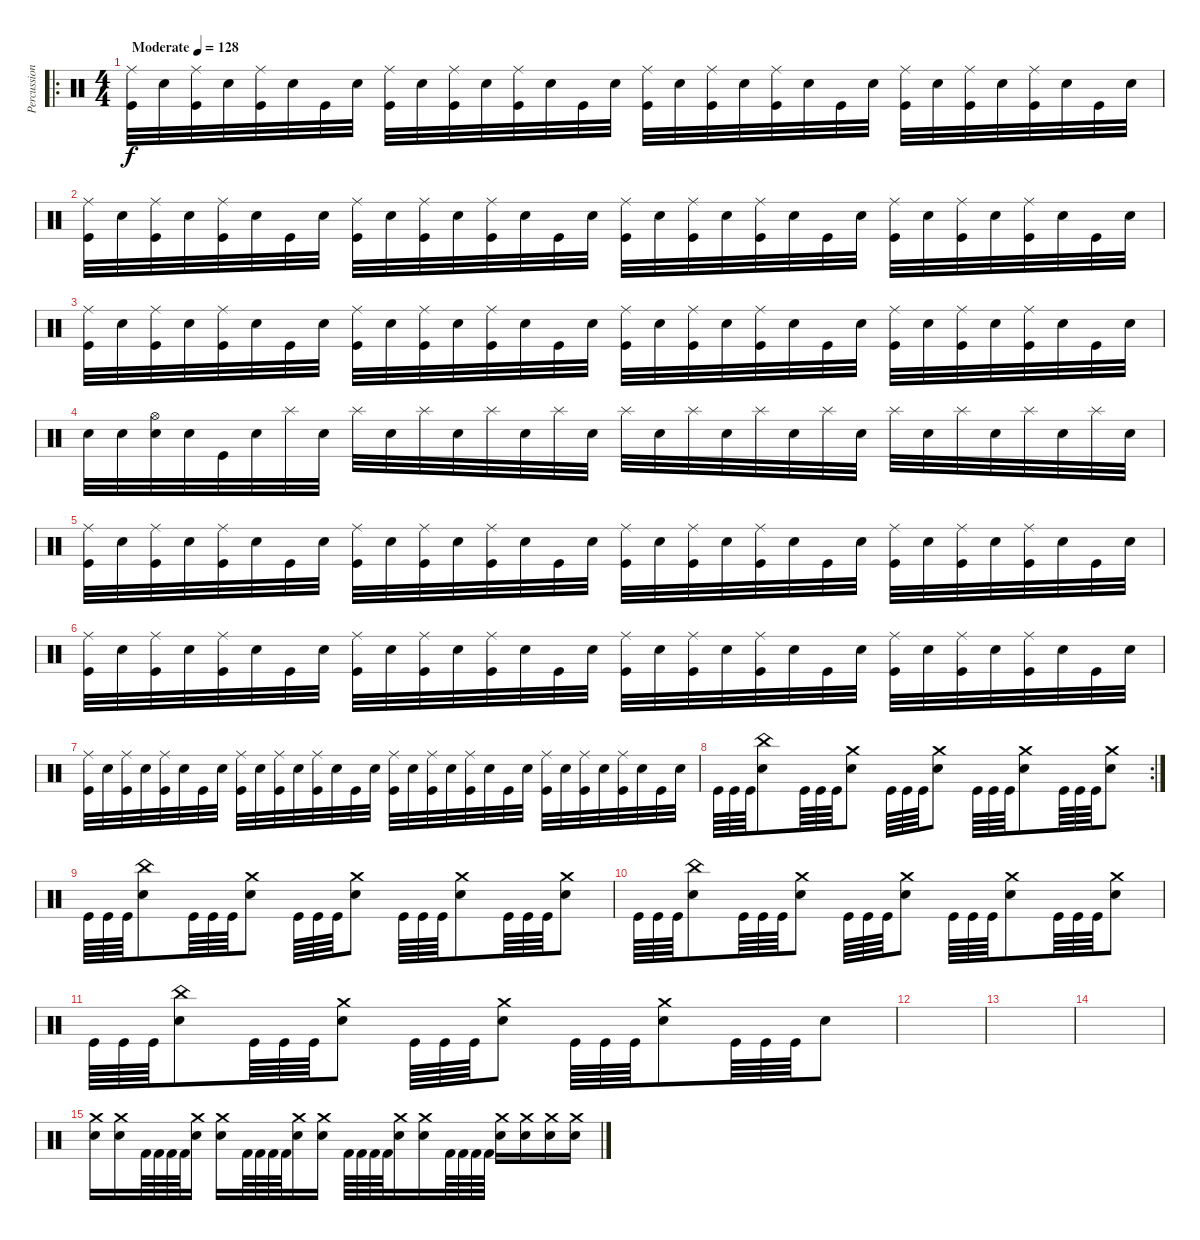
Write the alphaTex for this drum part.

\track ("Percussioni" "Percussion") {instrument percussion}
\staff {score}
\articulation defaults
\ro
\ts (4 4)
\tempo (128 "Moderate")
\clef neutral
\ks c
("Ride (middle)" "Kick (hit)").32{dy f} "Electric Snare (hit)".32 ("Ride (middle)" "Kick (hit)").32 "Electric Snare (hit)".32 ("Ride (middle)" "Kick (hit)").32 "Electric Snare (hit)".32 "Kick (hit)".32 "Electric Snare (hit)".32 ("Ride (middle)" "Kick (hit)").32 "Electric Snare (hit)".32 ("Ride (middle)" "Kick (hit)").32 "Electric Snare (hit)".32 ("Ride (middle)" "Kick (hit)").32 "Electric Snare (hit)".32 "Kick (hit)".32 "Electric Snare (hit)".32 ("Ride (middle)" "Kick (hit)").32 "Electric Snare (hit)".32 ("Ride (middle)" "Kick (hit)").32 "Electric Snare (hit)".32 ("Ride (middle)" "Kick (hit)").32 "Electric Snare (hit)".32 "Kick (hit)".32 "Electric Snare (hit)".32 ("Ride (middle)" "Kick (hit)").32 "Electric Snare (hit)".32 ("Ride (middle)" "Kick (hit)").32 "Electric Snare (hit)".32 ("Ride (middle)" "Kick (hit)").32 "Electric Snare (hit)".32 "Kick (hit)".32 "Electric Snare (hit)".32 |
("Ride (middle)" "Kick (hit)").32 "Electric Snare (hit)".32 ("Ride (middle)" "Kick (hit)").32 "Electric Snare (hit)".32 ("Ride (middle)" "Kick (hit)").32 "Electric Snare (hit)".32 "Kick (hit)".32 "Electric Snare (hit)".32 ("Ride (middle)" "Kick (hit)").32 "Electric Snare (hit)".32 ("Ride (middle)" "Kick (hit)").32 "Electric Snare (hit)".32 ("Ride (middle)" "Kick (hit)").32 "Electric Snare (hit)".32 "Kick (hit)".32 "Electric Snare (hit)".32 ("Ride (middle)" "Kick (hit)").32 "Electric Snare (hit)".32 ("Ride (middle)" "Kick (hit)").32 "Electric Snare (hit)".32 ("Ride (middle)" "Kick (hit)").32 "Electric Snare (hit)".32 "Kick (hit)".32 "Electric Snare (hit)".32 ("Ride (middle)" "Kick (hit)").32 "Electric Snare (hit)".32 ("Ride (middle)" "Kick (hit)").32 "Electric Snare (hit)".32 ("Ride (middle)" "Kick (hit)").32 "Electric Snare (hit)".32 "Kick (hit)".32 "Electric Snare (hit)".32 |
("Ride (middle)" "Kick (hit)").32 "Electric Snare (hit)".32 ("Ride (middle)" "Kick (hit)").32 "Electric Snare (hit)".32 ("Ride (middle)" "Kick (hit)").32 "Electric Snare (hit)".32 "Kick (hit)".32 "Electric Snare (hit)".32 ("Ride (middle)" "Kick (hit)").32 "Electric Snare (hit)".32 ("Ride (middle)" "Kick (hit)").32 "Electric Snare (hit)".32 ("Ride (middle)" "Kick (hit)").32 "Electric Snare (hit)".32 "Kick (hit)".32 "Electric Snare (hit)".32 ("Ride (middle)" "Kick (hit)").32 "Electric Snare (hit)".32 ("Ride (middle)" "Kick (hit)").32 "Electric Snare (hit)".32 ("Ride (middle)" "Kick (hit)").32 "Electric Snare (hit)".32 "Kick (hit)".32 "Electric Snare (hit)".32 ("Ride (middle)" "Kick (hit)").32 "Electric Snare (hit)".32 ("Ride (middle)" "Kick (hit)").32 "Electric Snare (hit)".32 ("Ride (middle)" "Kick (hit)").32 "Electric Snare (hit)".32 "Kick (hit)".32 "Electric Snare (hit)".32 |
"Electric Snare (hit)".32 "Electric Snare (hit)".32 ("Hi-Hat (open)" "Electric Snare (hit)").32 "Electric Snare (hit)".32 "Kick (hit)".32 "Electric Snare (hit)".32 "Splash (hit)".32 "Electric Snare (hit)".32 "Splash (hit)".32 "Electric Snare (hit)".32 "Splash (hit)".32 "Electric Snare (hit)".32 "Splash (hit)".32 "Electric Snare (hit)".32 "Splash (hit)".32 "Electric Snare (hit)".32 "Splash (hit)".32 "Electric Snare (hit)".32 "Splash (hit)".32 "Electric Snare (hit)".32 "Splash (hit)".32 "Electric Snare (hit)".32 "Splash (hit)".32 "Electric Snare (hit)".32 "Splash (hit)".32 "Electric Snare (hit)".32 "Splash (hit)".32 "Electric Snare (hit)".32 "Splash (hit)".32 "Electric Snare (hit)".32 "Splash (hit)".32 "Electric Snare (hit)".32 |
("Ride (middle)" "Kick (hit)").32 "Electric Snare (hit)".32 ("Ride (middle)" "Kick (hit)").32 "Electric Snare (hit)".32 ("Ride (middle)" "Kick (hit)").32 "Electric Snare (hit)".32 "Kick (hit)".32 "Electric Snare (hit)".32 ("Ride (middle)" "Kick (hit)").32 "Electric Snare (hit)".32 ("Ride (middle)" "Kick (hit)").32 "Electric Snare (hit)".32 ("Ride (middle)" "Kick (hit)").32 "Electric Snare (hit)".32 "Kick (hit)".32 "Electric Snare (hit)".32 ("Ride (middle)" "Kick (hit)").32 "Electric Snare (hit)".32 ("Ride (middle)" "Kick (hit)").32 "Electric Snare (hit)".32 ("Ride (middle)" "Kick (hit)").32 "Electric Snare (hit)".32 "Kick (hit)".32 "Electric Snare (hit)".32 ("Ride (middle)" "Kick (hit)").32 "Electric Snare (hit)".32 ("Ride (middle)" "Kick (hit)").32 "Electric Snare (hit)".32 ("Ride (middle)" "Kick (hit)").32 "Electric Snare (hit)".32 "Kick (hit)".32 "Electric Snare (hit)".32 |
("Ride (middle)" "Kick (hit)").32 "Electric Snare (hit)".32 ("Ride (middle)" "Kick (hit)").32 "Electric Snare (hit)".32 ("Ride (middle)" "Kick (hit)").32 "Electric Snare (hit)".32 "Kick (hit)".32 "Electric Snare (hit)".32 ("Ride (middle)" "Kick (hit)").32 "Electric Snare (hit)".32 ("Ride (middle)" "Kick (hit)").32 "Electric Snare (hit)".32 ("Ride (middle)" "Kick (hit)").32 "Electric Snare (hit)".32 "Kick (hit)".32 "Electric Snare (hit)".32 ("Ride (middle)" "Kick (hit)").32 "Electric Snare (hit)".32 ("Ride (middle)" "Kick (hit)").32 "Electric Snare (hit)".32 ("Ride (middle)" "Kick (hit)").32 "Electric Snare (hit)".32 "Kick (hit)".32 "Electric Snare (hit)".32 ("Ride (middle)" "Kick (hit)").32 "Electric Snare (hit)".32 ("Ride (middle)" "Kick (hit)").32 "Electric Snare (hit)".32 ("Ride (middle)" "Kick (hit)").32 "Electric Snare (hit)".32 "Kick (hit)".32 "Electric Snare (hit)".32 |
("Ride (middle)" "Kick (hit)").32 "Electric Snare (hit)".32 ("Ride (middle)" "Kick (hit)").32 "Electric Snare (hit)".32 ("Ride (middle)" "Kick (hit)").32 "Electric Snare (hit)".32 "Kick (hit)".32 "Electric Snare (hit)".32 ("Ride (middle)" "Kick (hit)").32 "Electric Snare (hit)".32 ("Ride (middle)" "Kick (hit)").32 "Electric Snare (hit)".32 ("Ride (middle)" "Kick (hit)").32 "Electric Snare (hit)".32 "Kick (hit)".32 "Electric Snare (hit)".32 ("Ride (middle)" "Kick (hit)").32 "Electric Snare (hit)".32 ("Ride (middle)" "Kick (hit)").32 "Electric Snare (hit)".32 ("Ride (middle)" "Kick (hit)").32 "Electric Snare (hit)".32 "Kick (hit)".32 "Electric Snare (hit)".32 ("Ride (middle)" "Kick (hit)").32 "Electric Snare (hit)".32 ("Ride (middle)" "Kick (hit)").32 "Electric Snare (hit)".32 ("Ride (middle)" "Kick (hit)").32 "Electric Snare (hit)".32 "Kick (hit)".32 "Electric Snare (hit)".32 |
\rc 2 "Kick (hit)".64 "Kick (hit)".64 "Kick (hit)".64
("China (hit)" "Electric Snare (hit)").8 "Kick (hit)".64 "Kick (hit)".64 "Kick (hit)".64 ("Crash medium (hit)" "Electric Snare (hit)").8 "Kick (hit)".64 "Kick (hit)".64 "Kick (hit)".64 ("Crash medium (hit)" "Electric Snare (hit)").8 "Kick (hit)".64 "Kick (hit)".64 "Kick (hit)".64 ("Crash medium (hit)" "Electric Snare (hit)").8 "Kick (hit)".64 "Kick (hit)".64 "Kick (hit)".64 ("Crash medium (hit)" "Electric Snare (hit)").8 |
"Kick (hit)".64 "Kick (hit)".64 "Kick (hit)".64 ("China (hit)" "Electric Snare (hit)").8 "Kick (hit)".64 "Kick (hit)".64 "Kick (hit)".64 ("Crash medium (hit)" "Electric Snare (hit)").8 "Kick (hit)".64 "Kick (hit)".64 "Kick (hit)".64 ("Crash medium (hit)" "Electric Snare (hit)").8 "Kick (hit)".64 "Kick (hit)".64 "Kick (hit)".64 ("Crash medium (hit)" "Electric Snare (hit)").8 "Kick (hit)".64 "Kick (hit)".64 "Kick (hit)".64 ("Crash medium (hit)" "Electric Snare (hit)").8 |
"Kick (hit)".64 "Kick (hit)".64 "Kick (hit)".64 ("China (hit)" "Electric Snare (hit)").8 "Kick (hit)".64 "Kick (hit)".64 "Kick (hit)".64 ("Crash medium (hit)" "Electric Snare (hit)").8 "Kick (hit)".64 "Kick (hit)".64 "Kick (hit)".64 ("Crash medium (hit)" "Electric Snare (hit)").8 "Kick (hit)".64 "Kick (hit)".64 "Kick (hit)".64 ("Crash medium (hit)" "Electric Snare (hit)").8 "Kick (hit)".64 "Kick (hit)".64 "Kick (hit)".64 ("Crash medium (hit)" "Electric Snare (hit)").8 |
"Kick (hit)".64 "Kick (hit)".64 "Kick (hit)".64 ("China (hit)" "Electric Snare (hit)").8 "Kick (hit)".64 "Kick (hit)".64 "Kick (hit)".64 ("Crash medium (hit)" "Electric Snare (hit)").8 "Kick (hit)".64 "Kick (hit)".64 "Kick (hit)".64 ("Crash medium (hit)" "Electric Snare (hit)").8 "Kick (hit)".64 "Kick (hit)".64 "Kick (hit)".64 ("Crash medium (hit)" "Electric Snare (hit)").8 "Kick (hit)".64 "Kick (hit)".64 "Kick (hit)".64 "Electric Snare (hit)".8 |
|
|
|
("Crash medium (hit)" "Electric Snare (hit)").16 ("Crash medium (hit)" "Electric Snare (hit)").16 "Kick (hit) 2".64 "Kick (hit) 2".64 "Kick (hit) 2".64 "Kick (hit) 2".64 ("Crash medium (hit)" "Electric Snare (hit)").16 ("Crash medium (hit)" "Electric Snare (hit)").16 "Kick (hit) 2".64 "Kick (hit) 2".64 "Kick (hit) 2".64 "Kick (hit) 2".64 ("Crash medium (hit)" "Electric Snare (hit)").16 ("Crash medium (hit)" "Electric Snare (hit)").16 "Kick (hit) 2".64 "Kick (hit) 2".64 "Kick (hit) 2".64 "Kick (hit) 2".64 ("Crash medium (hit)" "Electric Snare (hit)").16 ("Crash medium (hit)" "Electric Snare (hit)").16 "Kick (hit) 2".64 "Kick (hit) 2".64 "Kick (hit) 2".64 "Kick (hit) 2".64 ("Crash medium (hit)" "Electric Snare (hit)").16 ("Crash medium (hit)" "Electric Snare (hit)").16 ("Crash medium (hit)" "Electric Snare (hit)").16 ("Crash medium (hit)" "Electric Snare (hit)").16
